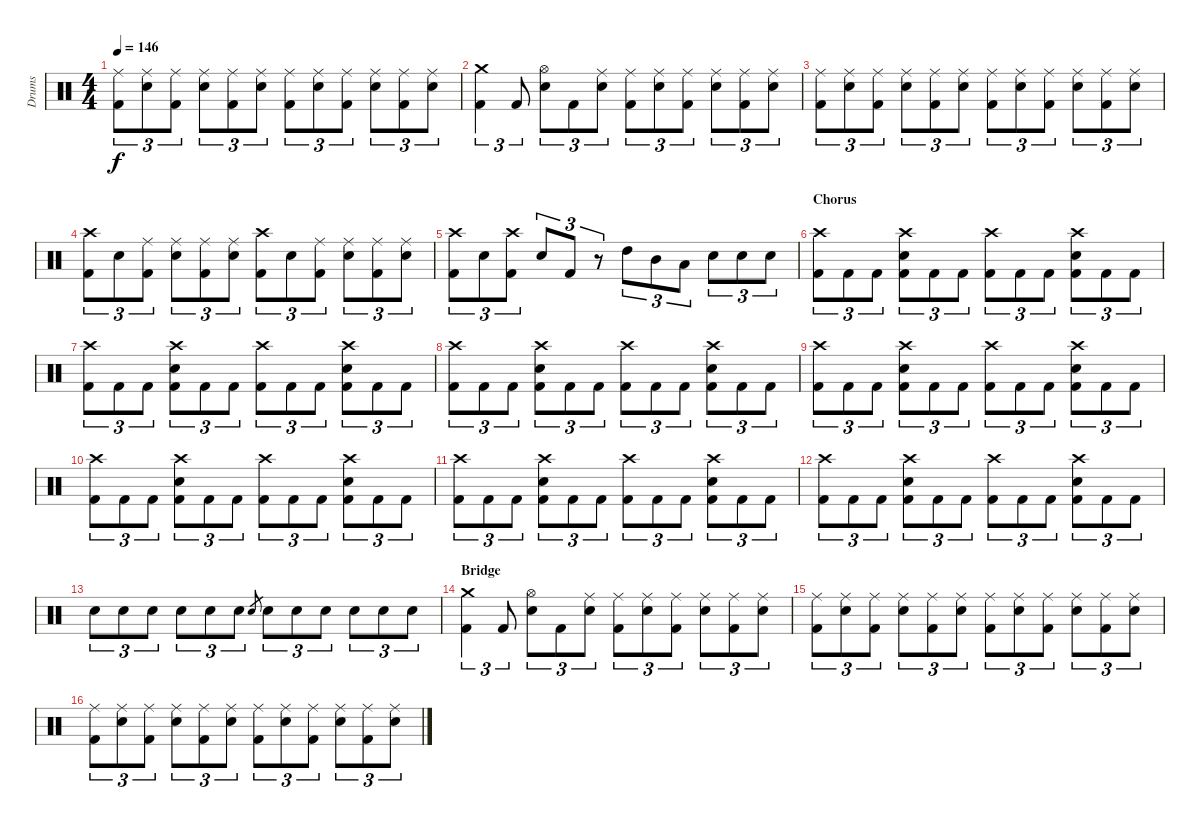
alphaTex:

\track ("Drums" "Drums") {instrument percussion}
\staff {score}
\articulation defaults
\ts (4 4)
\tempo 146
\clef neutral
\ks c
("Ride (middle)" "Kick (hit) 2").8{tu (3 2) dy f} ("Ride (middle)" "Electric Snare (hit)").8{tu (3 2)} ("Ride (middle)" "Kick (hit) 2").8{tu (3 2)} ("Ride (middle)" "Electric Snare (hit)").8{tu (3 2)} ("Ride (middle)" "Kick (hit) 2").8{tu (3 2)} ("Ride (middle)" "Electric Snare (hit)").8{tu (3 2)} ("Ride (middle)" "Kick (hit) 2").8{tu (3 2)} ("Ride (middle)" "Electric Snare (hit)").8{tu (3 2)} ("Ride (middle)" "Kick (hit) 2").8{tu (3 2)} ("Ride (middle)" "Electric Snare (hit)").8{tu (3 2)} ("Ride (middle)" "Kick (hit) 2").8{tu (3 2)} ("Ride (middle)" "Electric Snare (hit)").8{tu (3 2)} |
("Crash medium (hit)" "Kick (hit) 2").4{tu (3 2)} "Kick (hit) 2".8{tu (3 2)} ("Hi-Hat (open)" "Electric Snare (hit)").8{tu (3 2)} "Kick (hit) 2".8{tu (3 2)} ("Ride (middle)" "Electric Snare (hit)").8{tu (3 2)} ("Ride (middle)" "Kick (hit) 2").8{tu (3 2)} ("Ride (middle)" "Electric Snare (hit)").8{tu (3 2)} ("Ride (middle)" "Kick (hit) 2").8{tu (3 2)} ("Ride (middle)" "Electric Snare (hit)").8{tu (3 2)} ("Ride (middle)" "Kick (hit) 2").8{tu (3 2)} ("Ride (middle)" "Electric Snare (hit)").8{tu (3 2)} |
("Ride (middle)" "Kick (hit) 2").8{tu (3 2)} ("Ride (middle)" "Electric Snare (hit)").8{tu (3 2)} ("Ride (middle)" "Kick (hit) 2").8{tu (3 2)} ("Ride (middle)" "Electric Snare (hit)").8{tu (3 2)} ("Ride (middle)" "Kick (hit) 2").8{tu (3 2)} ("Ride (middle)" "Electric Snare (hit)").8{tu (3 2)} ("Ride (middle)" "Kick (hit) 2").8{tu (3 2)} ("Ride (middle)" "Electric Snare (hit)").8{tu (3 2)} ("Ride (middle)" "Kick (hit) 2").8{tu (3 2)} ("Ride (middle)" "Electric Snare (hit)").8{tu (3 2)} ("Ride (middle)" "Kick (hit) 2").8{tu (3 2)} ("Ride (middle)" "Electric Snare (hit)").8{tu (3 2)} |
("Crash high (hit)" "Kick (hit) 2").8{tu (3 2)} "Electric Snare (hit)".8{tu (3 2)} ("Ride (middle)" "Kick (hit) 2").8{tu (3 2)} ("Ride (middle)" "Electric Snare (hit)").8{tu (3 2)} ("Ride (middle)" "Kick (hit) 2").8{tu (3 2)} ("Ride (middle)" "Electric Snare (hit)").8{tu (3 2)} ("Crash high (hit)" "Kick (hit) 2").8{tu (3 2)} "Electric Snare (hit)".8{tu (3 2)} ("Ride (middle)" "Kick (hit) 2").8{tu (3 2)} ("Ride (middle)" "Electric Snare (hit)").8{tu (3 2)} ("Ride (middle)" "Kick (hit) 2").8{tu (3 2)} ("Ride (middle)" "Electric Snare (hit)").8{tu (3 2)} |
("Crash high (hit)" "Kick (hit) 2").8{tu (3 2)} "Electric Snare (hit)".8{tu (3 2)} ("Crash high (hit)" "Kick (hit) 2").8{tu (3 2)} "Electric Snare (hit)".8{tu (3 2)} "Kick (hit) 2".8{tu (3 2)} r.8{tu (3 2)} "High Tom (hit)".8{tu (3 2)} "Mid Tom (hit)".8{tu (3 2)} "Low Tom (hit)".8{tu (3 2)} "Electric Snare (hit)".8{tu (3 2)} "Electric Snare (hit)".8{tu (3 2)} "Electric Snare (hit)".8{tu (3 2)} |
\section ("" "Chorus")
("Crash high (hit)" "Kick (hit) 2").8{tu (3 2)} "Kick (hit) 2".8{tu (3 2)} "Kick (hit) 2".8{tu (3 2)} ("Crash high (hit)" "Electric Snare (hit)" "Kick (hit) 2").8{tu (3 2)} "Kick (hit) 2".8{tu (3 2)} "Kick (hit) 2".8{tu (3 2)} ("Crash high (hit)" "Kick (hit) 2").8{tu (3 2)} "Kick (hit) 2".8{tu (3 2)} "Kick (hit) 2".8{tu (3 2)} ("Crash high (hit)" "Electric Snare (hit)" "Kick (hit) 2").8{tu (3 2)} "Kick (hit) 2".8{tu (3 2)} "Kick (hit) 2".8{tu (3 2)} |
("Crash high (hit)" "Kick (hit) 2").8{tu (3 2)} "Kick (hit) 2".8{tu (3 2)} "Kick (hit) 2".8{tu (3 2)} ("Crash high (hit)" "Electric Snare (hit)" "Kick (hit) 2").8{tu (3 2)} "Kick (hit) 2".8{tu (3 2)} "Kick (hit) 2".8{tu (3 2)} ("Crash high (hit)" "Kick (hit) 2").8{tu (3 2)} "Kick (hit) 2".8{tu (3 2)} "Kick (hit) 2".8{tu (3 2)} ("Crash high (hit)" "Electric Snare (hit)" "Kick (hit) 2").8{tu (3 2)} "Kick (hit) 2".8{tu (3 2)} "Kick (hit) 2".8{tu (3 2)} |
("Crash high (hit)" "Kick (hit) 2").8{tu (3 2)} "Kick (hit) 2".8{tu (3 2)} "Kick (hit) 2".8{tu (3 2)} ("Crash high (hit)" "Electric Snare (hit)" "Kick (hit) 2").8{tu (3 2)} "Kick (hit) 2".8{tu (3 2)} "Kick (hit) 2".8{tu (3 2)} ("Crash high (hit)" "Kick (hit) 2").8{tu (3 2)} "Kick (hit) 2".8{tu (3 2)} "Kick (hit) 2".8{tu (3 2)} ("Crash high (hit)" "Electric Snare (hit)" "Kick (hit) 2").8{tu (3 2)} "Kick (hit) 2".8{tu (3 2)} "Kick (hit) 2".8{tu (3 2)} |
("Crash high (hit)" "Kick (hit) 2").8{tu (3 2)} "Kick (hit) 2".8{tu (3 2)} "Kick (hit) 2".8{tu (3 2)} ("Crash high (hit)" "Electric Snare (hit)" "Kick (hit) 2").8{tu (3 2)} "Kick (hit) 2".8{tu (3 2)} "Kick (hit) 2".8{tu (3 2)} ("Crash high (hit)" "Kick (hit) 2").8{tu (3 2)} "Kick (hit) 2".8{tu (3 2)} "Kick (hit) 2".8{tu (3 2)} ("Crash high (hit)" "Electric Snare (hit)" "Kick (hit) 2").8{tu (3 2)} "Kick (hit) 2".8{tu (3 2)} "Kick (hit) 2".8{tu (3 2)} |
("Crash high (hit)" "Kick (hit) 2").8{tu (3 2)} "Kick (hit) 2".8{tu (3 2)} "Kick (hit) 2".8{tu (3 2)} ("Crash high (hit)" "Electric Snare (hit)" "Kick (hit) 2").8{tu (3 2)} "Kick (hit) 2".8{tu (3 2)} "Kick (hit) 2".8{tu (3 2)} ("Crash high (hit)" "Kick (hit) 2").8{tu (3 2)} "Kick (hit) 2".8{tu (3 2)} "Kick (hit) 2".8{tu (3 2)} ("Crash high (hit)" "Electric Snare (hit)" "Kick (hit) 2").8{tu (3 2)} "Kick (hit) 2".8{tu (3 2)} "Kick (hit) 2".8{tu (3 2)} |
("Crash high (hit)" "Kick (hit) 2").8{tu (3 2)} "Kick (hit) 2".8{tu (3 2)} "Kick (hit) 2".8{tu (3 2)} ("Crash high (hit)" "Electric Snare (hit)" "Kick (hit) 2").8{tu (3 2)} "Kick (hit) 2".8{tu (3 2)} "Kick (hit) 2".8{tu (3 2)} ("Crash high (hit)" "Kick (hit) 2").8{tu (3 2)} "Kick (hit) 2".8{tu (3 2)} "Kick (hit) 2".8{tu (3 2)} ("Crash high (hit)" "Electric Snare (hit)" "Kick (hit) 2").8{tu (3 2)} "Kick (hit) 2".8{tu (3 2)} "Kick (hit) 2".8{tu (3 2)} |
("Crash high (hit)" "Kick (hit) 2").8{tu (3 2)} "Kick (hit) 2".8{tu (3 2)} "Kick (hit) 2".8{tu (3 2)} ("Crash high (hit)" "Electric Snare (hit)" "Kick (hit) 2").8{tu (3 2)} "Kick (hit) 2".8{tu (3 2)} "Kick (hit) 2".8{tu (3 2)} ("Crash high (hit)" "Kick (hit) 2").8{tu (3 2)} "Kick (hit) 2".8{tu (3 2)} "Kick (hit) 2".8{tu (3 2)} ("Crash high (hit)" "Electric Snare (hit)" "Kick (hit) 2").8{tu (3 2)} "Kick (hit) 2".8{tu (3 2)} "Kick (hit) 2".8{tu (3 2)} |
"Electric Snare (hit)".8{tu (3 2)} "Electric Snare (hit)".8{tu (3 2)} "Electric Snare (hit)".8{tu (3 2)} "Electric Snare (hit)".8{tu (3 2)} "Electric Snare (hit)".8{tu (3 2)} "Electric Snare (hit)".8{tu (3 2)} "Electric Snare (hit)".8{gr} "Electric Snare (hit)".8{tu (3 2)} "Electric Snare (hit)".8{tu (3 2)} "Electric Snare (hit)".8{tu (3 2)} "Electric Snare (hit)".8{tu (3 2)} "Electric Snare (hit)".8{tu (3 2)} "Electric Snare (hit)".8{tu (3 2)} |
\section ("" "Bridge")
("Crash medium (hit)" "Kick (hit) 2").4{tu (3 2)} "Kick (hit) 2".8{tu (3 2)} ("Hi-Hat (open)" "Electric Snare (hit)").8{tu (3 2)} "Kick (hit) 2".8{tu (3 2)} ("Ride (middle)" "Electric Snare (hit)").8{tu (3 2)} ("Ride (middle)" "Kick (hit) 2").8{tu (3 2)} ("Ride (middle)" "Electric Snare (hit)").8{tu (3 2)} ("Ride (middle)" "Kick (hit) 2").8{tu (3 2)} ("Ride (middle)" "Electric Snare (hit)").8{tu (3 2)} ("Ride (middle)" "Kick (hit) 2").8{tu (3 2)} ("Ride (middle)" "Electric Snare (hit)").8{tu (3 2)} |
("Ride (middle)" "Kick (hit) 2").8{tu (3 2)} ("Ride (middle)" "Electric Snare (hit)").8{tu (3 2)} ("Ride (middle)" "Kick (hit) 2").8{tu (3 2)} ("Ride (middle)" "Electric Snare (hit)").8{tu (3 2)} ("Ride (middle)" "Kick (hit) 2").8{tu (3 2)} ("Ride (middle)" "Electric Snare (hit)").8{tu (3 2)} ("Ride (middle)" "Kick (hit) 2").8{tu (3 2)} ("Ride (middle)" "Electric Snare (hit)").8{tu (3 2)} ("Ride (middle)" "Kick (hit) 2").8{tu (3 2)} ("Ride (middle)" "Electric Snare (hit)").8{tu (3 2)} ("Ride (middle)" "Kick (hit) 2").8{tu (3 2)} ("Ride (middle)" "Electric Snare (hit)").8{tu (3 2)} |
("Ride (middle)" "Kick (hit) 2").8{tu (3 2)} ("Ride (middle)" "Electric Snare (hit)").8{tu (3 2)} ("Ride (middle)" "Kick (hit) 2").8{tu (3 2)} ("Ride (middle)" "Electric Snare (hit)").8{tu (3 2)} ("Ride (middle)" "Kick (hit) 2").8{tu (3 2)} ("Ride (middle)" "Electric Snare (hit)").8{tu (3 2)} ("Ride (middle)" "Kick (hit) 2").8{tu (3 2)} ("Ride (middle)" "Electric Snare (hit)").8{tu (3 2)} ("Ride (middle)" "Kick (hit) 2").8{tu (3 2)} ("Ride (middle)" "Electric Snare (hit)").8{tu (3 2)} ("Ride (middle)" "Kick (hit) 2").8{tu (3 2)} ("Ride (middle)" "Electric Snare (hit)").8{tu (3 2)}
